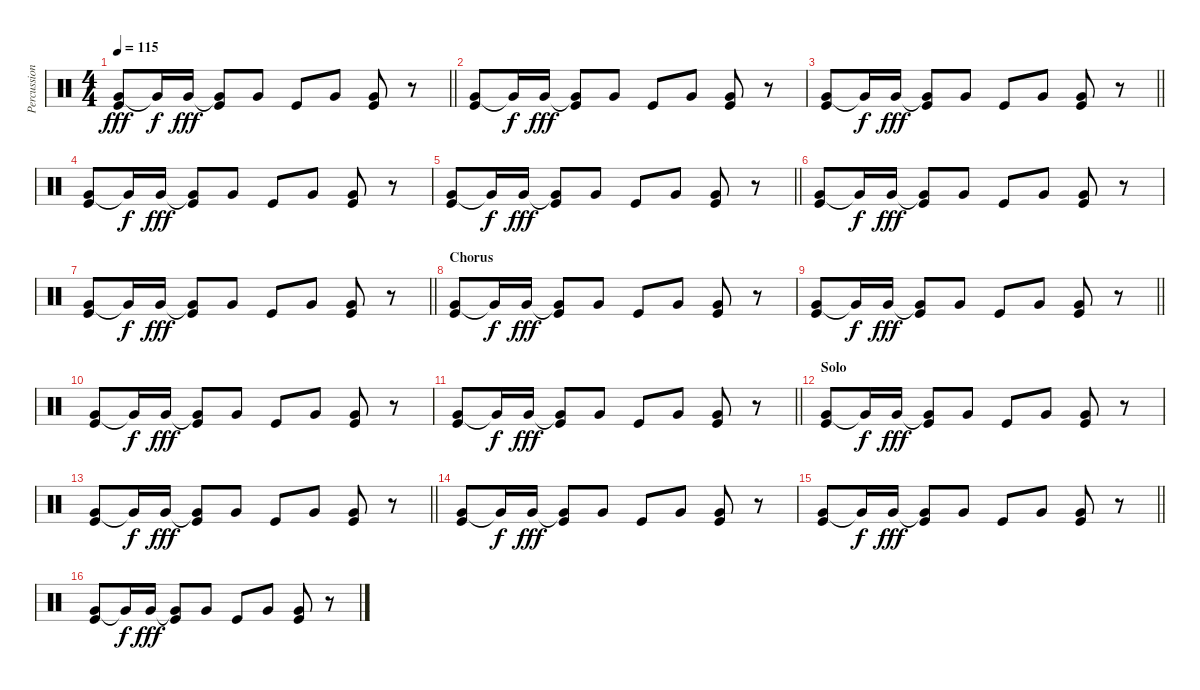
\track ("Percussion" "Percussion") {instrument percussion}
\staff {score}
\articulation defaults
\ts (4 4)
\tempo 115
\clef neutral
\barLineRight lightlight
\ks c
("Very Low Tom (hit)" "Kick (hit)").8{dy fff} "Very Low Tom (hit)"{t}.16{dy f} "Very Low Tom (hit)".16{dy fff} ("Very Low Tom (hit)"{t} "Kick (hit)").8 "Very Low Tom (hit)".8 "Kick (hit)".8 "Very Low Tom (hit)".8 ("Very Low Tom (hit)" "Kick (hit)").8 r.8 |
("Very Low Tom (hit)" "Kick (hit)").8 "Very Low Tom (hit)"{t}.16{dy f} "Very Low Tom (hit)".16{dy fff} ("Very Low Tom (hit)"{t} "Kick (hit)").8 "Very Low Tom (hit)".8 "Kick (hit)".8 "Very Low Tom (hit)".8 ("Very Low Tom (hit)" "Kick (hit)").8 r.8 |
\barLineRight lightlight
("Very Low Tom (hit)" "Kick (hit)").8 "Very Low Tom (hit)"{t}.16{dy f} "Very Low Tom (hit)".16{dy fff} ("Very Low Tom (hit)"{t} "Kick (hit)").8 "Very Low Tom (hit)".8 "Kick (hit)".8 "Very Low Tom (hit)".8 ("Very Low Tom (hit)" "Kick (hit)").8 r.8 |
("Very Low Tom (hit)" "Kick (hit)").8 "Very Low Tom (hit)"{t}.16{dy f} "Very Low Tom (hit)".16{dy fff} ("Very Low Tom (hit)"{t} "Kick (hit)").8 "Very Low Tom (hit)".8 "Kick (hit)".8 "Very Low Tom (hit)".8 ("Very Low Tom (hit)" "Kick (hit)").8 r.8 |
\barLineRight lightlight
("Very Low Tom (hit)" "Kick (hit)").8 "Very Low Tom (hit)"{t}.16{dy f} "Very Low Tom (hit)".16{dy fff} ("Very Low Tom (hit)"{t} "Kick (hit)").8 "Very Low Tom (hit)".8 "Kick (hit)".8 "Very Low Tom (hit)".8 ("Very Low Tom (hit)" "Kick (hit)").8 r.8 |
("Very Low Tom (hit)" "Kick (hit)").8 "Very Low Tom (hit)"{t}.16{dy f} "Very Low Tom (hit)".16{dy fff} ("Very Low Tom (hit)"{t} "Kick (hit)").8 "Very Low Tom (hit)".8 "Kick (hit)".8 "Very Low Tom (hit)".8 ("Very Low Tom (hit)" "Kick (hit)").8 r.8 |
\barLineRight lightlight
("Very Low Tom (hit)" "Kick (hit)").8 "Very Low Tom (hit)"{t}.16{dy f} "Very Low Tom (hit)".16{dy fff} ("Very Low Tom (hit)"{t} "Kick (hit)").8 "Very Low Tom (hit)".8 "Kick (hit)".8 "Very Low Tom (hit)".8 ("Very Low Tom (hit)" "Kick (hit)").8 r.8 |
\section ("" "Chorus")
("Very Low Tom (hit)" "Kick (hit)").8 "Very Low Tom (hit)"{t}.16{dy f} "Very Low Tom (hit)".16{dy fff} ("Very Low Tom (hit)"{t} "Kick (hit)").8 "Very Low Tom (hit)".8 "Kick (hit)".8 "Very Low Tom (hit)".8 ("Very Low Tom (hit)" "Kick (hit)").8 r.8 |
\barLineRight lightlight
("Very Low Tom (hit)" "Kick (hit)").8 "Very Low Tom (hit)"{t}.16{dy f} "Very Low Tom (hit)".16{dy fff} ("Very Low Tom (hit)"{t} "Kick (hit)").8 "Very Low Tom (hit)".8 "Kick (hit)".8 "Very Low Tom (hit)".8 ("Very Low Tom (hit)" "Kick (hit)").8 r.8 |
("Very Low Tom (hit)" "Kick (hit)").8 "Very Low Tom (hit)"{t}.16{dy f} "Very Low Tom (hit)".16{dy fff} ("Very Low Tom (hit)"{t} "Kick (hit)").8 "Very Low Tom (hit)".8 "Kick (hit)".8 "Very Low Tom (hit)".8 ("Very Low Tom (hit)" "Kick (hit)").8 r.8 |
\barLineRight lightlight
("Very Low Tom (hit)" "Kick (hit)").8 "Very Low Tom (hit)"{t}.16{dy f} "Very Low Tom (hit)".16{dy fff} ("Very Low Tom (hit)"{t} "Kick (hit)").8 "Very Low Tom (hit)".8 "Kick (hit)".8 "Very Low Tom (hit)".8 ("Very Low Tom (hit)" "Kick (hit)").8 r.8 |
\section ("" "Solo")
("Very Low Tom (hit)" "Kick (hit)").8 "Very Low Tom (hit)"{t}.16{dy f} "Very Low Tom (hit)".16{dy fff} ("Very Low Tom (hit)"{t} "Kick (hit)").8 "Very Low Tom (hit)".8 "Kick (hit)".8 "Very Low Tom (hit)".8 ("Very Low Tom (hit)" "Kick (hit)").8 r.8 |
\barLineRight lightlight
("Very Low Tom (hit)" "Kick (hit)").8 "Very Low Tom (hit)"{t}.16{dy f} "Very Low Tom (hit)".16{dy fff} ("Very Low Tom (hit)"{t} "Kick (hit)").8 "Very Low Tom (hit)".8 "Kick (hit)".8 "Very Low Tom (hit)".8 ("Very Low Tom (hit)" "Kick (hit)").8 r.8 |
("Very Low Tom (hit)" "Kick (hit)").8 "Very Low Tom (hit)"{t}.16{dy f} "Very Low Tom (hit)".16{dy fff} ("Very Low Tom (hit)"{t} "Kick (hit)").8 "Very Low Tom (hit)".8 "Kick (hit)".8 "Very Low Tom (hit)".8 ("Very Low Tom (hit)" "Kick (hit)").8 r.8 |
\barLineRight lightlight
("Very Low Tom (hit)" "Kick (hit)").8 "Very Low Tom (hit)"{t}.16{dy f} "Very Low Tom (hit)".16{dy fff} ("Very Low Tom (hit)"{t} "Kick (hit)").8 "Very Low Tom (hit)".8 "Kick (hit)".8 "Very Low Tom (hit)".8 ("Very Low Tom (hit)" "Kick (hit)").8 r.8 |
("Very Low Tom (hit)" "Kick (hit)").8 "Very Low Tom (hit)"{t}.16{dy f} "Very Low Tom (hit)".16{dy fff} ("Very Low Tom (hit)"{t} "Kick (hit)").8 "Very Low Tom (hit)".8 "Kick (hit)".8 "Very Low Tom (hit)".8 ("Very Low Tom (hit)" "Kick (hit)").8 r.8
